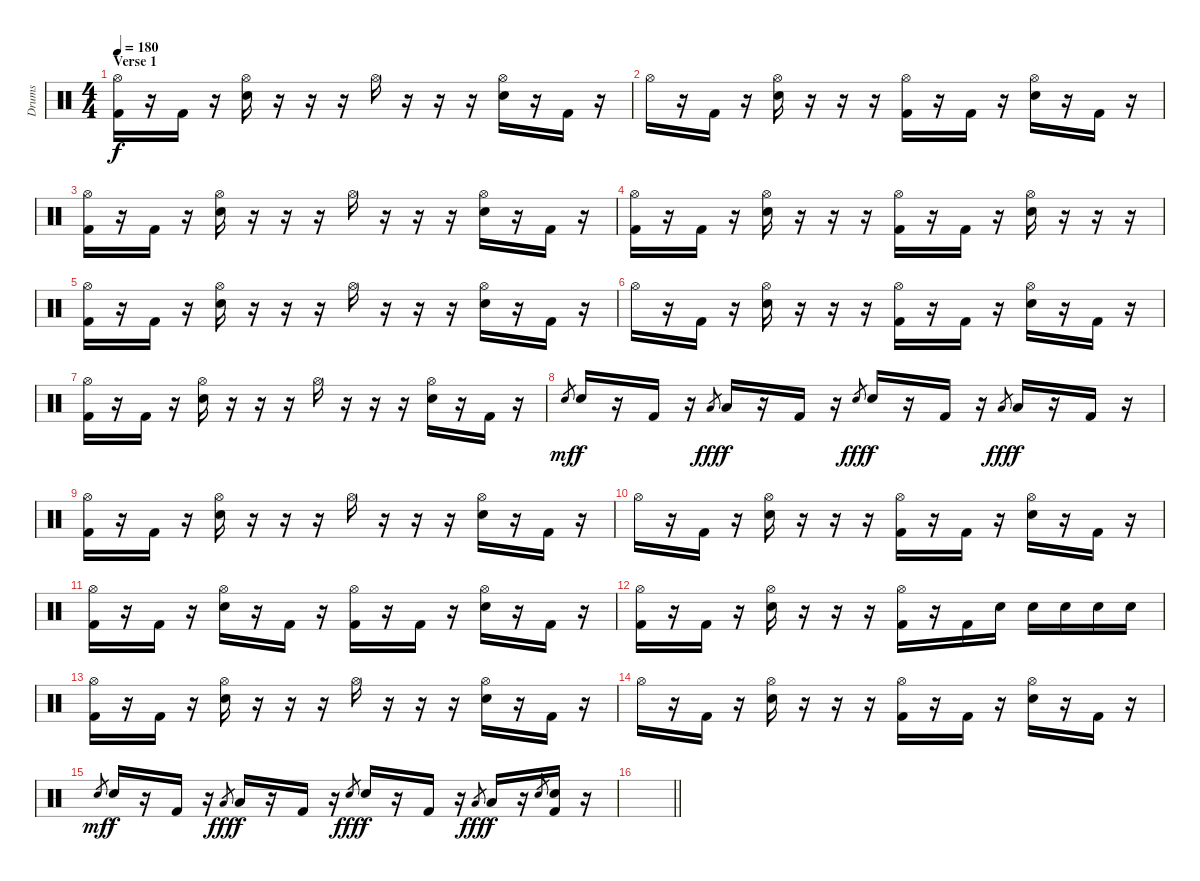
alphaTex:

\track ("Drums" "Drums") {instrument percussion}
\staff {score}
\articulation defaults
\ts (4 4)
\section ("" "Verse 1")
\tempo 180
\clef neutral
\ks c
("Hi-Hat (open)" "Kick (hit) 2").16{dy f} r.16 "Kick (hit) 2".16 r.16 ("Hi-Hat (open)" "Electric Snare (hit)").16 r.16 r.16 r.16 "Hi-Hat (open)".16 r.16 r.16 r.16 ("Hi-Hat (open)" "Electric Snare (hit)").16 r.16 "Kick (hit) 2".16 r.16 |
"Hi-Hat (open)".16 r.16 "Kick (hit) 2".16 r.16 ("Hi-Hat (open)" "Electric Snare (hit)").16 r.16 r.16 r.16 ("Hi-Hat (open)" "Kick (hit) 2").16 r.16 "Kick (hit) 2".16 r.16 ("Hi-Hat (open)" "Electric Snare (hit)").16 r.16 "Kick (hit) 2".16 r.16 |
("Hi-Hat (open)" "Kick (hit) 2").16 r.16 "Kick (hit) 2".16 r.16 ("Hi-Hat (open)" "Electric Snare (hit)").16 r.16 r.16 r.16 "Hi-Hat (open)".16 r.16 r.16 r.16 ("Hi-Hat (open)" "Electric Snare (hit)").16 r.16 "Kick (hit) 2".16 r.16 |
("Hi-Hat (open)" "Kick (hit) 2").16 r.16 "Kick (hit) 2".16 r.16 ("Hi-Hat (open)" "Electric Snare (hit)").16 r.16 r.16 r.16 ("Hi-Hat (open)" "Kick (hit) 2").16 r.16 "Kick (hit) 2".16 r.16 ("Hi-Hat (open)" "Electric Snare (hit)").16 r.16 r.16 r.16 |
("Hi-Hat (open)" "Kick (hit) 2").16 r.16 "Kick (hit) 2".16 r.16 ("Hi-Hat (open)" "Electric Snare (hit)").16 r.16 r.16 r.16 "Hi-Hat (open)".16 r.16 r.16 r.16 ("Hi-Hat (open)" "Electric Snare (hit)").16 r.16 "Kick (hit) 2".16 r.16 |
"Hi-Hat (open)".16 r.16 "Kick (hit) 2".16 r.16 ("Hi-Hat (open)" "Electric Snare (hit)").16 r.16 r.16 r.16 ("Hi-Hat (open)" "Kick (hit) 2").16 r.16 "Kick (hit) 2".16 r.16 ("Hi-Hat (open)" "Electric Snare (hit)").16 r.16 "Kick (hit) 2".16 r.16 |
("Hi-Hat (open)" "Kick (hit) 2").16 r.16 "Kick (hit) 2".16 r.16 ("Hi-Hat (open)" "Electric Snare (hit)").16 r.16 r.16 r.16 "Hi-Hat (open)".16 r.16 r.16 r.16 ("Hi-Hat (open)" "Electric Snare (hit)").16 r.16 "Kick (hit) 2".16 r.16 |
"Electric Snare (hit)"{h}.8{gr dy mf} "Electric Snare (hit)".16{dy f} r.16 "Kick (hit) 2".16 r.16 "Low Tom (hit)"{h}.8{gr dy fff} "Low Floor Tom (hit)".16{dy f} r.16 "Kick (hit) 2".16 r.16 "Electric Snare (hit)"{h}.8{gr dy fff} "Electric Snare (hit)".16{dy f} r.16 "Kick (hit) 2".16 r.16 "Low Tom (hit)"{h}.8{gr dy fff} "Low Floor Tom (hit)".16{dy f} r.16 "Kick (hit) 2".16 r.16 |
("Hi-Hat (open)" "Kick (hit) 2").16 r.16 "Kick (hit) 2".16 r.16 ("Hi-Hat (open)" "Electric Snare (hit)").16 r.16 r.16 r.16 "Hi-Hat (open)".16 r.16 r.16 r.16 ("Hi-Hat (open)" "Electric Snare (hit)").16 r.16 "Kick (hit) 2".16 r.16 |
"Hi-Hat (open)".16 r.16 "Kick (hit) 2".16 r.16 ("Hi-Hat (open)" "Electric Snare (hit)").16 r.16 r.16 r.16 ("Hi-Hat (open)" "Kick (hit) 2").16 r.16 "Kick (hit) 2".16 r.16 ("Hi-Hat (open)" "Electric Snare (hit)").16 r.16 "Kick (hit) 2".16 r.16 |
("Hi-Hat (open)" "Kick (hit) 2").16 r.16 "Kick (hit) 2".16 r.16 ("Hi-Hat (open)" "Electric Snare (hit)").16 r.16 "Kick (hit) 2".16 r.16 ("Hi-Hat (open)" "Kick (hit) 2").16 r.16 "Kick (hit) 2".16 r.16 ("Hi-Hat (open)" "Electric Snare (hit)").16 r.16 "Kick (hit) 2".16 r.16 |
("Hi-Hat (open)" "Kick (hit) 2").16 r.16 "Kick (hit) 2".16 r.16 ("Hi-Hat (open)" "Electric Snare (hit)").16 r.16 r.16 r.16 ("Hi-Hat (open)" "Kick (hit) 2").16 r.16 "Kick (hit) 2".16 "Electric Snare (hit)".16 "Electric Snare (hit)".16 "Electric Snare (hit)".16 "Electric Snare (hit)".16 "Electric Snare (hit)".16 |
("Hi-Hat (open)" "Kick (hit) 2").16 r.16 "Kick (hit) 2".16 r.16 ("Hi-Hat (open)" "Electric Snare (hit)").16 r.16 r.16 r.16 "Hi-Hat (open)".16 r.16 r.16 r.16 ("Hi-Hat (open)" "Electric Snare (hit)").16 r.16 "Kick (hit) 2".16 r.16 |
"Hi-Hat (open)".16 r.16 "Kick (hit) 2".16 r.16 ("Hi-Hat (open)" "Electric Snare (hit)").16 r.16 r.16 r.16 ("Hi-Hat (open)" "Kick (hit) 2").16 r.16 "Kick (hit) 2".16 r.16 ("Hi-Hat (open)" "Electric Snare (hit)").16 r.16 "Kick (hit) 2".16 r.16 |
"Electric Snare (hit)"{h}.8{gr dy mf} "Electric Snare (hit)".16{dy f} r.16 "Kick (hit) 2".16 r.16 "Low Tom (hit)"{h}.8{gr dy fff} "Low Floor Tom (hit)".16{dy f} r.16 "Kick (hit) 2".16 r.16 "Electric Snare (hit)"{h}.8{gr dy fff} "Electric Snare (hit)".16{dy f} r.16 "Kick (hit) 2".16 r.16 "Low Tom (hit)"{h}.8{gr dy fff} "Low Floor Tom (hit)".16{dy f} r.16 "Electric Snare (hit)".8{gr} ("Electric Snare (hit)" "Kick (hit) 2").16 r.16 |
\barLineRight lightlight
